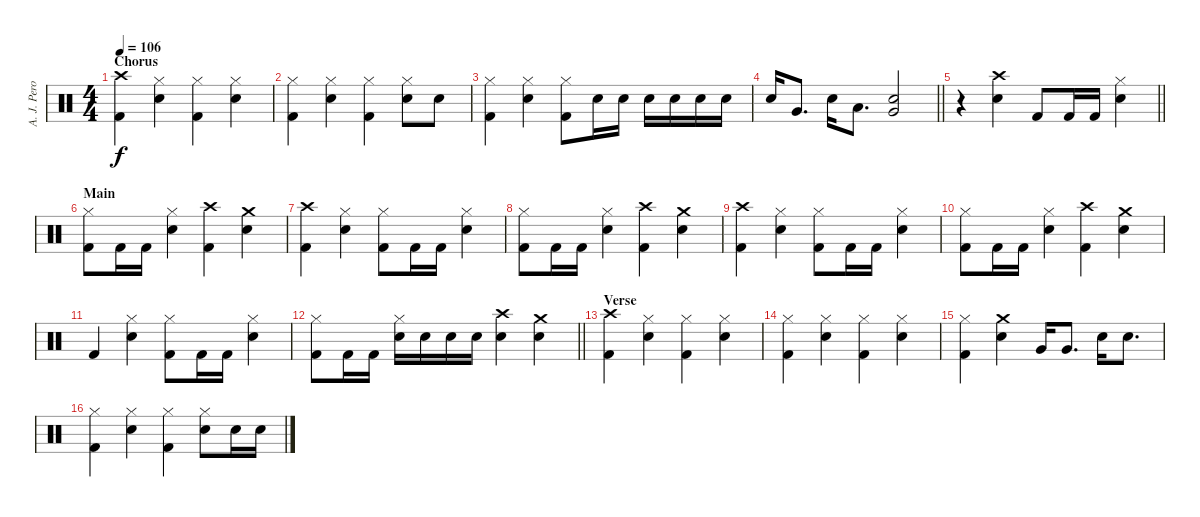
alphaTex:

\track ("A. J. Pero" "A. J. Pero") {instrument percussion}
\staff {score}
\articulation defaults
\ts (4 4)
\section ("" "Chorus")
\tempo 106
\clef neutral
\ks c
("Crash high (hit)" "Kick (hit) 2").4{dy f} ("Hi-Hat (closed)" "Snare (hit) 2").4 ("Hi-Hat (closed)" "Kick (hit) 2").4 ("Hi-Hat (closed)" "Snare (hit) 2").4 |
("Hi-Hat (closed)" "Kick (hit) 2").4 ("Hi-Hat (closed)" "Snare (hit) 2").4 ("Hi-Hat (closed)" "Kick (hit) 2").4 ("Hi-Hat (closed)" "Snare (hit) 2").8 "Snare (hit) 2".8 |
("Hi-Hat (closed)" "Kick (hit) 2").4 ("Hi-Hat (closed)" "Snare (hit) 2").4 ("Hi-Hat (closed)" "Kick (hit) 2").8 "Snare (hit) 2".16 "Snare (hit) 2".16 "Snare (hit) 2".16 "Snare (hit) 2".16 "Snare (hit) 2".16 "Snare (hit) 2".16 |
\barLineRight lightlight "Snare (hit) 2".16 "Very Low Tom (hit)".8{d} "Snare (hit) 2".16 "Low Tom (hit)".8{d}
("Very Low Tom (hit)" "Snare (hit) 2").2 |
\barLineRight lightlight
r.4 ("Crash high (hit)" "Snare (hit) 2").4 "Kick (hit) 2".8 "Kick (hit) 2".16 "Kick (hit) 2".16 ("Hi-Hat (closed)" "Snare (hit) 2").4 |
\section ("" "Main")
("Hi-Hat (closed)" "Kick (hit) 2").8 "Kick (hit) 2".16 "Kick (hit) 2".16 ("Hi-Hat (closed)" "Snare (hit) 2").4 ("Crash high (hit)" "Kick (hit) 2").4 ("Crash medium (hit)" "Snare (hit) 2").4 |
("Crash high (hit)" "Kick (hit) 2").4 ("Hi-Hat (closed)" "Snare (hit) 2").4 ("Hi-Hat (closed)" "Kick (hit) 2").8 "Kick (hit) 2".16 "Kick (hit) 2".16 ("Hi-Hat (closed)" "Snare (hit) 2").4 |
("Hi-Hat (closed)" "Kick (hit) 2").8 "Kick (hit) 2".16 "Kick (hit) 2".16 ("Hi-Hat (closed)" "Snare (hit) 2").4 ("Crash high (hit)" "Kick (hit) 2").4 ("Crash medium (hit)" "Snare (hit) 2").4 |
("Crash high (hit)" "Kick (hit) 2").4 ("Hi-Hat (closed)" "Snare (hit) 2").4 ("Hi-Hat (closed)" "Kick (hit) 2").8 "Kick (hit) 2".16 "Kick (hit) 2".16 ("Hi-Hat (closed)" "Snare (hit) 2").4 |
("Hi-Hat (closed)" "Kick (hit) 2").8 "Kick (hit) 2".16 "Kick (hit) 2".16 ("Hi-Hat (closed)" "Snare (hit) 2").4 ("Crash high (hit)" "Kick (hit) 2").4 ("Crash medium (hit)" "Snare (hit) 2").4 |
"Kick (hit) 2".4 ("Hi-Hat (closed)" "Snare (hit) 2").4 ("Hi-Hat (closed)" "Kick (hit) 2").8 "Kick (hit) 2".16 "Kick (hit) 2".16 ("Hi-Hat (closed)" "Snare (hit) 2").4 |
\barLineRight lightlight
("Hi-Hat (closed)" "Kick (hit) 2").8 "Kick (hit) 2".16 "Kick (hit) 2".16 ("Hi-Hat (closed)" "Snare (hit) 2").16 "Snare (hit) 2".16 "Snare (hit) 2".16 "Snare (hit) 2".16 ("Crash high (hit)" "Snare (hit) 2").4 ("Crash medium (hit)" "Snare (hit) 2").4 |
\section ("" "Verse")
("Crash high (hit)" "Kick (hit) 2").4 ("Hi-Hat (closed)" "Snare (hit) 2").4 ("Hi-Hat (closed)" "Kick (hit) 2").4 ("Hi-Hat (closed)" "Snare (hit) 2").4 |
("Hi-Hat (closed)" "Kick (hit) 2").4 ("Hi-Hat (closed)" "Snare (hit) 2").4 ("Hi-Hat (closed)" "Kick (hit) 2").4 ("Hi-Hat (closed)" "Snare (hit) 2").4 |
("Hi-Hat (closed)" "Kick (hit) 2").4 ("Crash medium (hit)" "Snare (hit) 2").4 "Very Low Tom (hit)".16 "Very Low Tom (hit)".8{d} "Snare (hit) 2".16 "Snare (hit) 2".8{d} |
("Hi-Hat (closed)" "Kick (hit) 2").4 ("Hi-Hat (closed)" "Snare (hit) 2").4 ("Hi-Hat (closed)" "Kick (hit) 2").4 ("Hi-Hat (closed)" "Snare (hit) 2").8 "Snare (hit) 2".16 "Snare (hit) 2".16
